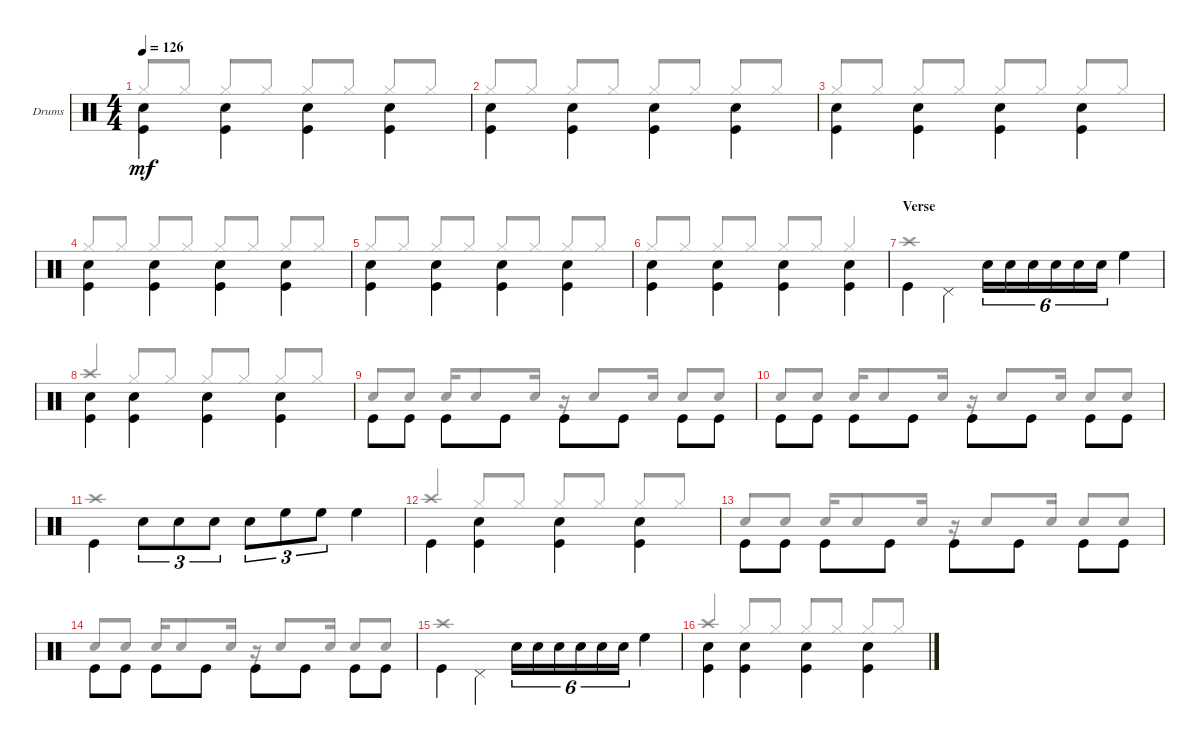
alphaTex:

\defaultSystemsLayout 4
\bracketExtendMode groupsimilarinstruments
\firstSystemTrackNameOrientation horizontal
\otherSystemsTrackNameOrientation horizontal
\track ("PETER CRISS" "Drums") {instrument percussion}
\staff {score}
\articulation defaults
\voice
\ts (4 4)
\tempo 126
\clef neutral
\ks c
("Kick (hit)" "Snare (hit) 2").4{dy mf beam invert} ("Kick (hit)" "Snare (hit) 2").4{beam invert} ("Kick (hit)" "Snare (hit) 2").4{beam invert} ("Kick (hit)" "Snare (hit) 2").4{beam invert} |
("Kick (hit)" "Snare (hit) 2").4{beam invert} ("Kick (hit)" "Snare (hit) 2").4{beam invert} ("Kick (hit)" "Snare (hit) 2").4{beam invert} ("Kick (hit)" "Snare (hit) 2").4{beam invert} |
("Kick (hit)" "Snare (hit) 2").4{beam invert} ("Kick (hit)" "Snare (hit) 2").4{beam invert} ("Kick (hit)" "Snare (hit) 2").4{beam invert} ("Kick (hit)" "Snare (hit) 2").4{beam invert} |
("Kick (hit)" "Snare (hit) 2").4{beam invert} ("Kick (hit)" "Snare (hit) 2").4{beam invert} ("Kick (hit)" "Snare (hit) 2").4{beam invert} ("Kick (hit)" "Snare (hit) 2").4{beam invert} |
("Kick (hit)" "Snare (hit) 2").4{beam invert} ("Kick (hit)" "Snare (hit) 2").4{beam invert} ("Kick (hit)" "Snare (hit) 2").4{beam invert} ("Kick (hit)" "Snare (hit) 2").4{beam invert} |
("Kick (hit)" "Snare (hit) 2").4{beam invert} ("Kick (hit)" "Snare (hit) 2").4{beam invert} ("Kick (hit)" "Snare (hit) 2").4{beam invert} ("Kick (hit)" "Snare (hit) 2").4{beam invert} |
\section ("" "Verse")
"Kick (hit)".4{beam invert} "Pedal Hi-Hat (hit)".4{beam invert} "Snare (hit) 2".16{tu (6 4) beam invert} "Snare (hit) 2".16{tu (6 4)} "Snare (hit) 2".16{tu (6 4)} "Snare (hit) 2".16{tu (6 4)} "Snare (hit) 2".16{tu (6 4)} "Snare (hit) 2".16{tu (6 4)} "High Floor Tom (hit)".4{beam invert} |
("Kick (hit)" "Snare (hit) 2").4{beam invert} ("Kick (hit)" "Snare (hit) 2").4{beam invert} ("Kick (hit)" "Snare (hit) 2").4{beam invert} ("Kick (hit)" "Snare (hit) 2").4{beam invert} |
"Kick (hit)".8{beam invert} "Kick (hit)".8 "Kick (hit)".8{beam invert} "Kick (hit)".8 "Kick (hit)".8{beam invert} "Kick (hit)".8 "Kick (hit)".8{beam invert} "Kick (hit)".8 |
"Kick (hit)".8{beam invert} "Kick (hit)".8 "Kick (hit)".8{beam invert} "Kick (hit)".8 "Kick (hit)".8{beam invert} "Kick (hit)".8 "Kick (hit)".8{beam invert} "Kick (hit)".8 |
"Kick (hit)".4{beam invert} "Snare (hit) 2".8{tu (3 2) beam invert} "Snare (hit) 2".8{tu (3 2)} "Snare (hit) 2".8{tu (3 2)} "Snare (hit) 2".8{tu (3 2) beam invert} "High Floor Tom (hit)".8{tu (3 2)} "High Floor Tom (hit)".8{tu (3 2)} "High Floor Tom (hit)".4{beam invert} |
"Kick (hit)".4{beam invert} ("Snare (hit) 2" "Kick (hit)").4{beam invert} ("Snare (hit) 2" "Kick (hit)").4{beam invert} ("Snare (hit) 2" "Kick (hit)").4{beam invert} |
\scale
0.305466 "Kick (hit)".8{beam invert} "Kick (hit)".8 "Kick (hit)".8{beam invert} "Kick (hit)".8 "Kick (hit)".8{beam invert} "Kick (hit)".8 "Kick (hit)".8{beam invert} "Kick (hit)".8 |
\scale
0.354412 "Kick (hit)".8{beam invert} "Kick (hit)".8 "Kick (hit)".8{beam invert} "Kick (hit)".8 "Kick (hit)".8{beam invert} "Kick (hit)".8 "Kick (hit)".8{beam invert} "Kick (hit)".8 |
\scale
0.340369 "Kick (hit)".4{beam invert} "Pedal Hi-Hat (hit)".4{beam invert} "Snare (hit) 2".16{tu (6 4) beam invert} "Snare (hit) 2".16{tu (6 4)} "Snare (hit) 2".16{tu (6 4)} "Snare (hit) 2".16{tu (6 4)} "Snare (hit) 2".16{tu (6 4)} "Snare (hit) 2".16{tu (6 4)} "High Floor Tom (hit)".4{beam invert} |
\scale
0.255405 ("Snare (hit) 2" "Kick (hit)").4{beam invert} ("Snare (hit) 2" "Kick (hit)").4{beam invert} ("Snare (hit) 2" "Kick (hit)").4{beam invert} ("Kick (hit)" "Snare (hit) 2").4{beam invert}
\voice
\clef neutral
\ottava regular
\simile none
\ks c "Hi-Hat (closed)".8{dy mf beam invert} "Hi-Hat (closed)".8 "Hi-Hat (closed)".8{beam invert} "Hi-Hat (closed)".8 "Hi-Hat (closed)".8{beam invert} "Hi-Hat (closed)".8 "Hi-Hat (closed)".8{beam invert} "Hi-Hat (closed)".8
|
"Hi-Hat (closed)".8{beam invert} "Hi-Hat (closed)".8 "Hi-Hat (closed)".8{beam invert} "Hi-Hat (closed)".8 "Hi-Hat (closed)".8{beam invert} "Hi-Hat (closed)".8 "Hi-Hat (closed)".8{beam invert} "Hi-Hat (closed)".8 |
"Hi-Hat (closed)".8{beam invert} "Hi-Hat (closed)".8 "Hi-Hat (closed)".8{beam invert} "Hi-Hat (closed)".8 "Hi-Hat (closed)".8{beam invert} "Hi-Hat (closed)".8 "Hi-Hat (closed)".8{beam invert} "Hi-Hat (closed)".8 |
"Hi-Hat (closed)".8{beam invert} "Hi-Hat (closed)".8 "Hi-Hat (closed)".8{beam invert} "Hi-Hat (closed)".8 "Hi-Hat (closed)".8{beam invert} "Hi-Hat (closed)".8 "Hi-Hat (closed)".8{beam invert} "Hi-Hat (closed)".8 |
"Hi-Hat (closed)".8{beam invert} "Hi-Hat (closed)".8 "Hi-Hat (closed)".8{beam invert} "Hi-Hat (closed)".8 "Hi-Hat (closed)".8{beam invert} "Hi-Hat (closed)".8 "Hi-Hat (closed)".8{beam invert} "Hi-Hat (closed)".8 |
"Hi-Hat (closed)".8{beam invert} "Hi-Hat (closed)".8 "Hi-Hat (closed)".8{beam invert} "Hi-Hat (closed)".8 "Hi-Hat (closed)".8{beam invert} "Hi-Hat (closed)".8 "Hi-Hat (closed)".4{beam invert} |
"Crash high (hit)".1 |
"Crash high (hit)".4{beam invert} "Hi-Hat (closed)".8{beam invert} "Hi-Hat (closed)".8 "Hi-Hat (closed)".8{beam invert} "Hi-Hat (closed)".8 "Hi-Hat (closed)".8{beam invert} "Hi-Hat (closed)".8 |
"Snare (hit) 2".8{beam invert} "Snare (hit) 2".8 "Snare (hit) 2".16{beam invert} "Snare (hit) 2".8 "Snare (hit) 2".16 r.16 "Snare (hit) 2".8{beam invert} "Snare (hit) 2".16 "Snare (hit) 2".8{beam invert} "Snare (hit) 2".8 |
"Snare (hit) 2".8{beam invert} "Snare (hit) 2".8 "Snare (hit) 2".16{beam invert} "Snare (hit) 2".8 "Snare (hit) 2".16 r.16 "Snare (hit) 2".8{beam invert} "Snare (hit) 2".16 "Snare (hit) 2".8{beam invert} "Snare (hit) 2".8 |
"Crash high (hit)".1 |
"Crash high (hit)".4{beam invert} "Hi-Hat (closed)".8{beam invert} "Hi-Hat (closed)".8 "Hi-Hat (closed)".8{beam invert} "Hi-Hat (closed)".8 "Hi-Hat (closed)".8{beam invert} "Hi-Hat (closed)".8 |
\scale
0.305466 "Snare (hit) 2".8{beam invert} "Snare (hit) 2".8 "Snare (hit) 2".16{beam invert} "Snare (hit) 2".8 "Snare (hit) 2".16 r.16 "Snare (hit) 2".8{beam invert} "Snare (hit) 2".16 "Snare (hit) 2".8{beam invert} "Snare (hit) 2".8 |
\scale
0.354412 "Snare (hit) 2".8{beam invert} "Snare (hit) 2".8 "Snare (hit) 2".16{beam invert} "Snare (hit) 2".8 "Snare (hit) 2".16 r.16 "Snare (hit) 2".8{beam invert} "Snare (hit) 2".16 "Snare (hit) 2".8{beam invert} "Snare (hit) 2".8 |
\scale
0.340369 "Crash high (hit)".1 |
\scale
0.255405 "Crash high (hit)".4{beam invert} "Hi-Hat (closed)".8{beam invert} "Hi-Hat (closed)".8 "Hi-Hat (closed)".8{beam invert} "Hi-Hat (closed)".8 "Hi-Hat (closed)".8{beam invert} "Hi-Hat (closed)".8
